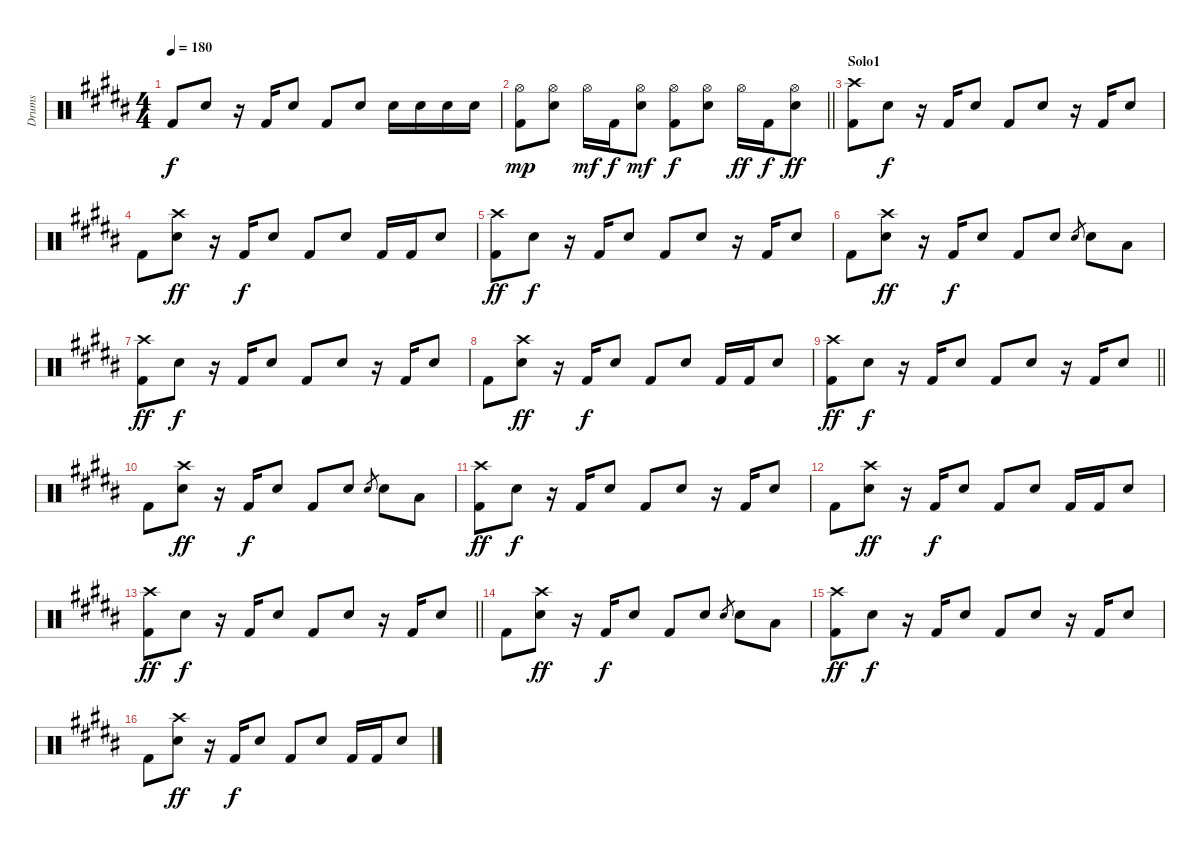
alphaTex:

\track ("Drums" "Drums") {instrument percussion}
\staff {score}
\articulation defaults
\ts (4 4)
\tempo 180
\clef neutral
\ks g#minor "Kick (hit) 2".8{dy f} "Snare (hit) 2".8
r.16 "Kick (hit) 2".16 "Snare (hit) 2".8 "Kick (hit) 2".8 "Snare (hit) 2".8 "Snare (hit) 2".16 "Snare (hit) 2".16 "Snare (hit) 2".16 "Snare (hit) 2".16 |
\barLineRight lightlight
("Kick (hit) 2" "Hi-Hat (open)").8{dy mp} ("Snare (hit) 2" "Hi-Hat (open)").8 "Hi-Hat (open)".16{dy mf} "Kick (hit) 2".16{dy f} ("Snare (hit) 2" "Hi-Hat (open)").8{dy mf} ("Kick (hit) 2" "Hi-Hat (open)").8{dy f} ("Snare (hit) 2" "Hi-Hat (open)").8 "Hi-Hat (open)".16{dy ff} "Kick (hit) 2".16{dy f} ("Snare (hit) 2" "Hi-Hat (open)").8{dy ff} |
\section ("" "Solo1")
("Kick (hit) 2" "Crash high (hit)").8 "Snare (hit) 2".8{dy f} r.16 "Kick (hit) 2".16 "Snare (hit) 2".8 "Kick (hit) 2".8 "Snare (hit) 2".8 r.16 "Kick (hit) 2".16 "Snare (hit) 2".8 |
"Kick (hit) 2".8 ("Snare (hit) 2" "Crash high (hit)").8{dy ff} r.16 "Kick (hit) 2".16{dy f} "Snare (hit) 2".8 "Kick (hit) 2".8 "Snare (hit) 2".8 "Kick (hit) 2".16 "Kick (hit) 2".16 "Snare (hit) 2".8 |
("Kick (hit) 2" "Crash high (hit)").8{dy ff} "Snare (hit) 2".8{dy f} r.16 "Kick (hit) 2".16 "Snare (hit) 2".8 "Kick (hit) 2".8 "Snare (hit) 2".8 r.16 "Kick (hit) 2".16 "Snare (hit) 2".8 |
"Kick (hit) 2".8 ("Snare (hit) 2" "Crash high (hit)").8{dy ff} r.16 "Kick (hit) 2".16{dy f} "Snare (hit) 2".8 "Kick (hit) 2".8 "Snare (hit) 2".8 "Snare (hit) 2".8{gr} "Snare (hit) 2".8 "Low Tom (hit)".8 |
("Kick (hit) 2" "Crash high (hit)").8{dy ff} "Snare (hit) 2".8{dy f} r.16 "Kick (hit) 2".16 "Snare (hit) 2".8 "Kick (hit) 2".8 "Snare (hit) 2".8 r.16 "Kick (hit) 2".16 "Snare (hit) 2".8 |
"Kick (hit) 2".8 ("Snare (hit) 2" "Crash high (hit)").8{dy ff} r.16 "Kick (hit) 2".16{dy f} "Snare (hit) 2".8 "Kick (hit) 2".8 "Snare (hit) 2".8 "Kick (hit) 2".16 "Kick (hit) 2".16 "Snare (hit) 2".8 |
\barLineRight lightlight
("Kick (hit) 2" "Crash high (hit)").8{dy ff} "Snare (hit) 2".8{dy f} r.16 "Kick (hit) 2".16 "Snare (hit) 2".8 "Kick (hit) 2".8 "Snare (hit) 2".8 r.16 "Kick (hit) 2".16 "Snare (hit) 2".8 |
"Kick (hit) 2".8 ("Snare (hit) 2" "Crash high (hit)").8{dy ff} r.16 "Kick (hit) 2".16{dy f} "Snare (hit) 2".8 "Kick (hit) 2".8 "Snare (hit) 2".8 "Snare (hit) 2".8{gr} "Snare (hit) 2".8 "Low Tom (hit)".8 |
("Kick (hit) 2" "Crash high (hit)").8{dy ff} "Snare (hit) 2".8{dy f} r.16 "Kick (hit) 2".16 "Snare (hit) 2".8 "Kick (hit) 2".8 "Snare (hit) 2".8 r.16 "Kick (hit) 2".16 "Snare (hit) 2".8 |
"Kick (hit) 2".8 ("Snare (hit) 2" "Crash high (hit)").8{dy ff} r.16 "Kick (hit) 2".16{dy f} "Snare (hit) 2".8 "Kick (hit) 2".8 "Snare (hit) 2".8 "Kick (hit) 2".16 "Kick (hit) 2".16 "Snare (hit) 2".8 |
\barLineRight lightlight
("Kick (hit) 2" "Crash high (hit)").8{dy ff} "Snare (hit) 2".8{dy f} r.16 "Kick (hit) 2".16 "Snare (hit) 2".8 "Kick (hit) 2".8 "Snare (hit) 2".8 r.16 "Kick (hit) 2".16 "Snare (hit) 2".8 |
"Kick (hit) 2".8 ("Snare (hit) 2" "Crash high (hit)").8{dy ff} r.16 "Kick (hit) 2".16{dy f} "Snare (hit) 2".8 "Kick (hit) 2".8 "Snare (hit) 2".8 "Snare (hit) 2".8{gr} "Snare (hit) 2".8 "Low Tom (hit)".8 |
("Kick (hit) 2" "Crash high (hit)").8{dy ff} "Snare (hit) 2".8{dy f} r.16 "Kick (hit) 2".16 "Snare (hit) 2".8 "Kick (hit) 2".8 "Snare (hit) 2".8 r.16 "Kick (hit) 2".16 "Snare (hit) 2".8 |
"Kick (hit) 2".8 ("Snare (hit) 2" "Crash high (hit)").8{dy ff} r.16 "Kick (hit) 2".16{dy f} "Snare (hit) 2".8 "Kick (hit) 2".8 "Snare (hit) 2".8 "Kick (hit) 2".16 "Kick (hit) 2".16 "Snare (hit) 2".8
